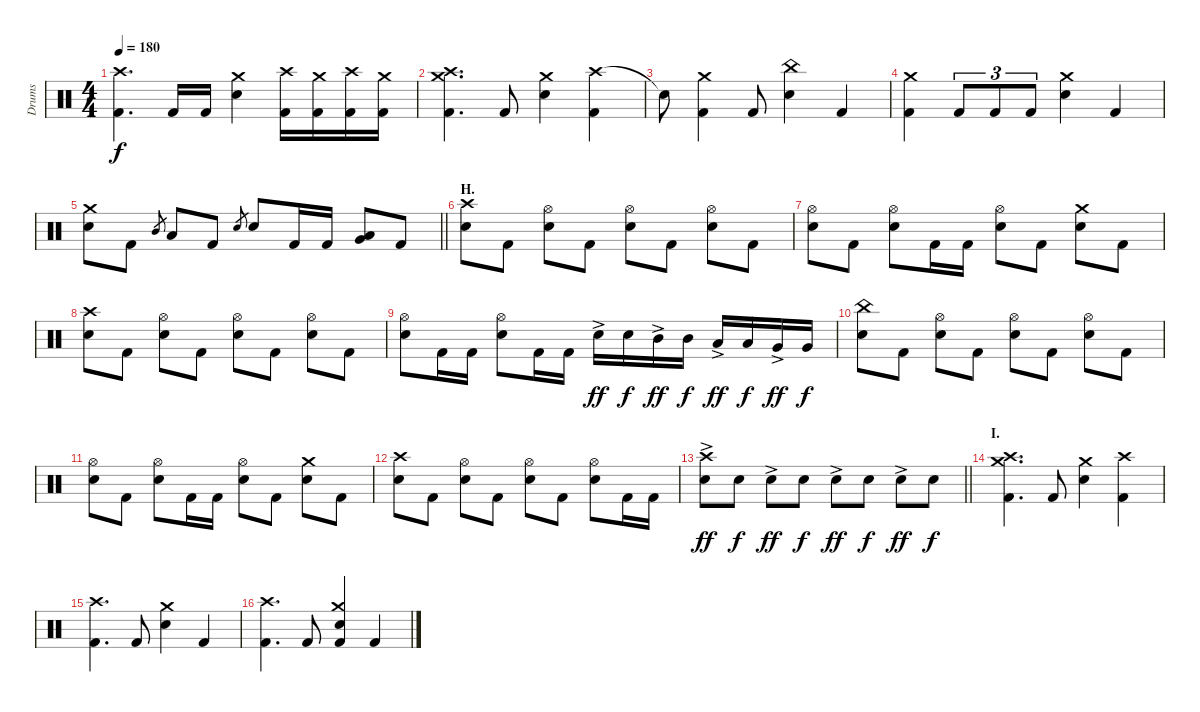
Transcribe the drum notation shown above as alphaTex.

\track ("Drums" "Drums") {instrument percussion}
\staff {score}
\articulation defaults
\ts (4 4)
\tempo 180
\clef neutral
\ks c
("Crash high (hit)" "Kick (hit) 2").4{d dy f} "Kick (hit) 2".16 "Kick (hit) 2".16 ("Crash medium (hit)" "Electric Snare (hit)").4 ("Crash high (hit)" "Kick (hit) 2").16 ("Crash medium (hit)" "Kick (hit) 2").16 ("Crash high (hit)" "Kick (hit) 2").16 ("Crash medium (hit)" "Kick (hit) 2").16 |
("Crash medium (hit)" "Crash high (hit)" "Kick (hit) 2").4{d} "Kick (hit) 2".8 ("Crash medium (hit)" "Electric Snare (hit)").4 ("Crash high (hit)" "Kick (hit) 2").4 |
"Snare (hit)"{t}.8 ("Crash medium (hit)" "Kick (hit) 2").4 "Kick (hit) 2".8 ("China (hit)" "Electric Snare (hit)").4 "Kick (hit) 2".4 |
("Crash medium (hit)" "Kick (hit) 2").4 "Kick (hit) 2".8{tu (3 2)} "Kick (hit) 2".8{tu (3 2)} "Kick (hit) 2".8{tu (3 2)} ("Crash medium (hit)" "Electric Snare (hit)").4 "Kick (hit) 2".4 |
\barLineRight lightlight
("Crash medium (hit)" "Electric Snare (hit)").8 "Kick (hit) 2".8 "Mid Tom (hit)".8{gr} "Low Tom (hit)".8 "Kick (hit) 2".8 "Electric Snare (hit)".8{gr} "Electric Snare (hit)".8 "Kick (hit) 2".16 "Kick (hit) 2".16 ("Low Tom (hit)" "Very Low Tom (hit)").8{bu 120} "Kick (hit) 2".8 |
\section ("" "H.")
("Crash high (hit)" "Electric Snare (hit)").8 "Kick (hit) 2".8 ("Hi-Hat (open)" "Electric Snare (hit)").8 "Kick (hit) 2".8 ("Hi-Hat (open)" "Electric Snare (hit)").8 "Kick (hit) 2".8 ("Hi-Hat (open)" "Electric Snare (hit)").8 "Kick (hit) 2".8 |
("Hi-Hat (open)" "Electric Snare (hit)").8 "Kick (hit) 2".8 ("Hi-Hat (open)" "Electric Snare (hit)").8 "Kick (hit) 2".16 "Kick (hit) 2".16 ("Hi-Hat (open)" "Electric Snare (hit)").8 "Kick (hit) 2".8 ("Crash medium (hit)" "Electric Snare (hit)").8 "Kick (hit) 2".8 |
("Crash high (hit)" "Electric Snare (hit)").8 "Kick (hit) 2".8 ("Hi-Hat (open)" "Electric Snare (hit)").8 "Kick (hit) 2".8 ("Hi-Hat (open)" "Electric Snare (hit)").8 "Kick (hit) 2".8 ("Hi-Hat (open)" "Electric Snare (hit)").8 "Kick (hit) 2".8 |
("Hi-Hat (open)" "Electric Snare (hit)").8 "Kick (hit) 2".16 "Kick (hit) 2".16 ("Hi-Hat (open)" "Electric Snare (hit)").8 "Kick (hit) 2".16 "Kick (hit) 2".16 "Electric Snare (hit)"{ac}.16{dy ff} "Electric Snare (hit)".16{dy f} "Mid Tom (hit)"{ac}.16{dy ff} "Mid Tom (hit)".16{dy f} "Low Tom (hit)"{ac}.16{dy ff} "Low Tom (hit)".16{dy f} "Very Low Tom (hit)"{ac}.16{dy ff} "Very Low Tom (hit)".16{dy f} |
("China (hit)" "Electric Snare (hit)").8 "Kick (hit) 2".8 ("Hi-Hat (open)" "Electric Snare (hit)").8 "Kick (hit) 2".8 ("Hi-Hat (open)" "Electric Snare (hit)").8 "Kick (hit) 2".8 ("Hi-Hat (open)" "Electric Snare (hit)").8 "Kick (hit) 2".8 |
("Hi-Hat (open)" "Electric Snare (hit)").8 "Kick (hit) 2".8 ("Hi-Hat (open)" "Electric Snare (hit)").8 "Kick (hit) 2".16 "Kick (hit) 2".16 ("Hi-Hat (open)" "Electric Snare (hit)").8 "Kick (hit) 2".8 ("Crash medium (hit)" "Electric Snare (hit)").8 "Kick (hit) 2".8 |
("Crash high (hit)" "Electric Snare (hit)").8 "Kick (hit) 2".8 ("Hi-Hat (open)" "Electric Snare (hit)").8 "Kick (hit) 2".8 ("Hi-Hat (open)" "Electric Snare (hit)").8 "Kick (hit) 2".8 ("Hi-Hat (open)" "Electric Snare (hit)").8 "Kick (hit) 2".16 "Kick (hit) 2".16 |
\barLineRight lightlight
("Crash high (hit)" "Electric Snare (hit)"{ac}).8{dy ff} "Electric Snare (hit)".8{dy f} "Electric Snare (hit)"{ac}.8{dy ff} "Electric Snare (hit)".8{dy f} "Electric Snare (hit)"{ac}.8{dy ff} "Electric Snare (hit)".8{dy f} "Electric Snare (hit)"{ac}.8{dy ff} "Electric Snare (hit)".8{dy f} |
\section ("" "I.")
("Crash medium (hit)" "Crash high (hit)" "Kick (hit) 2").4{d} "Kick (hit) 2".8 ("Crash medium (hit)" "Electric Snare (hit)").4 ("Crash high (hit)" "Kick (hit) 2").4 |
("Crash high (hit)" "Kick (hit) 2").4{d} "Kick (hit) 2".8 ("Crash medium (hit)" "Electric Snare (hit)").4 "Kick (hit) 2".4 |
("Crash high (hit)" "Kick (hit) 2").4{d} "Kick (hit) 2".8 ("Crash medium (hit)" "Electric Snare (hit)" "Kick (hit) 2").4 "Kick (hit) 2".4
